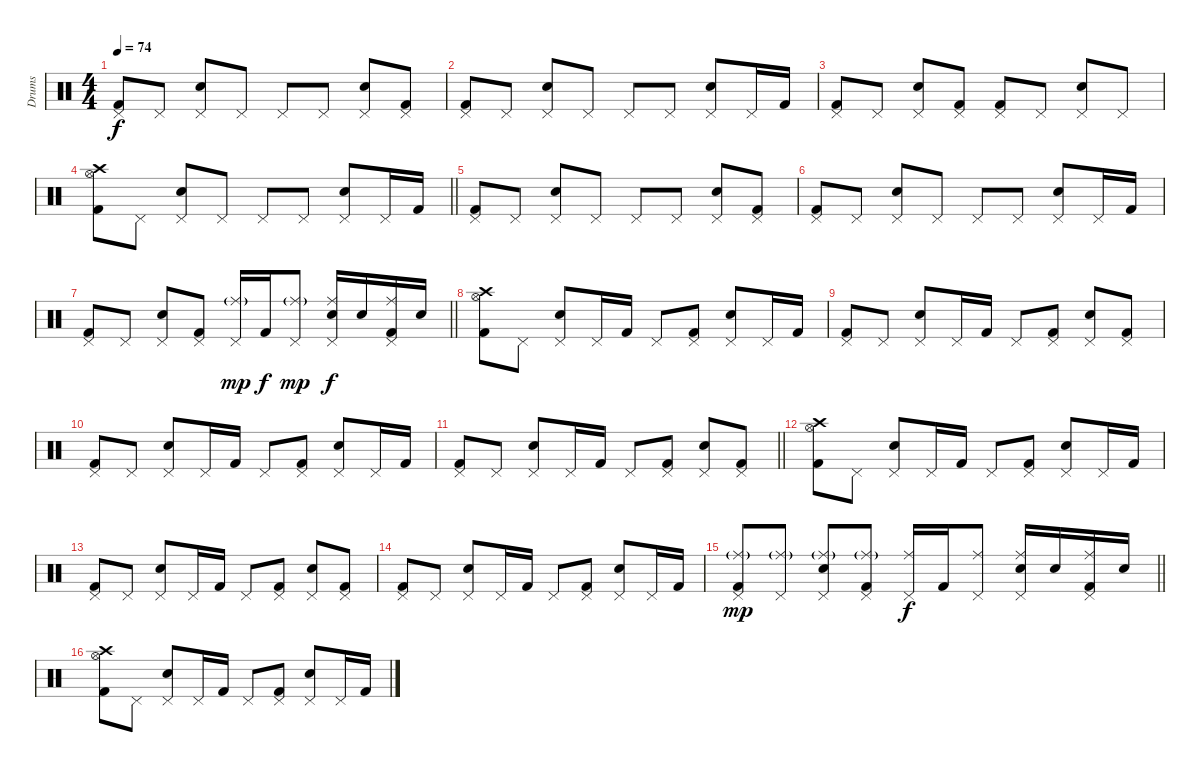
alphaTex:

\track ("Drums" "Drums") {instrument percussion}
\staff {score}
\articulation defaults
\ts (4 4)
\tempo 74
\clef neutral
\ks c
("Pedal Hi-Hat (hit)" "Kick (hit) 2").8{dy f} "Pedal Hi-Hat (hit)".8 ("Pedal Hi-Hat (hit)" "Electric Snare (hit)").8 "Pedal Hi-Hat (hit)".8 "Pedal Hi-Hat (hit)".8 "Pedal Hi-Hat (hit)".8 ("Pedal Hi-Hat (hit)" "Electric Snare (hit)").8 ("Pedal Hi-Hat (hit)" "Kick (hit) 2").8 |
("Pedal Hi-Hat (hit)" "Kick (hit) 2").8 "Pedal Hi-Hat (hit)".8 ("Pedal Hi-Hat (hit)" "Electric Snare (hit)").8 "Pedal Hi-Hat (hit)".8 "Pedal Hi-Hat (hit)".8 "Pedal Hi-Hat (hit)".8 ("Pedal Hi-Hat (hit)" "Electric Snare (hit)").8 "Pedal Hi-Hat (hit)".16 "Kick (hit) 2".16 |
("Pedal Hi-Hat (hit)" "Kick (hit) 2").8 "Pedal Hi-Hat (hit)".8 ("Pedal Hi-Hat (hit)" "Electric Snare (hit)").8 ("Pedal Hi-Hat (hit)" "Kick (hit) 2").8 ("Pedal Hi-Hat (hit)" "Kick (hit) 2").8 "Pedal Hi-Hat (hit)".8 ("Pedal Hi-Hat (hit)" "Electric Snare (hit)").8 "Pedal Hi-Hat (hit)".8 |
\barLineRight lightlight
("Crash high (hit)" "Hi-Hat (open)" "Kick (hit) 2").8 "Pedal Hi-Hat (hit)".8 ("Pedal Hi-Hat (hit)" "Electric Snare (hit)").8 "Pedal Hi-Hat (hit)".8 "Pedal Hi-Hat (hit)".8 "Pedal Hi-Hat (hit)".8 ("Pedal Hi-Hat (hit)" "Electric Snare (hit)").8 "Pedal Hi-Hat (hit)".16 "Kick (hit) 2".16 |
("Pedal Hi-Hat (hit)" "Kick (hit) 2").8 "Pedal Hi-Hat (hit)".8 ("Pedal Hi-Hat (hit)" "Electric Snare (hit)").8 "Pedal Hi-Hat (hit)".8 "Pedal Hi-Hat (hit)".8 "Pedal Hi-Hat (hit)".8 ("Pedal Hi-Hat (hit)" "Electric Snare (hit)").8 ("Pedal Hi-Hat (hit)" "Kick (hit) 2").8 |
("Pedal Hi-Hat (hit)" "Kick (hit) 2").8 "Pedal Hi-Hat (hit)".8 ("Pedal Hi-Hat (hit)" "Electric Snare (hit)").8 "Pedal Hi-Hat (hit)".8 "Pedal Hi-Hat (hit)".8 "Pedal Hi-Hat (hit)".8 ("Pedal Hi-Hat (hit)" "Electric Snare (hit)").8 "Pedal Hi-Hat (hit)".16 "Kick (hit) 2".16 |
\barLineRight lightlight
("Pedal Hi-Hat (hit)" "Kick (hit) 2").8 "Pedal Hi-Hat (hit)".8 ("Pedal Hi-Hat (hit)" "Electric Snare (hit)").8 ("Pedal Hi-Hat (hit)" "Kick (hit) 2").8 ("Pedal Hi-Hat (hit)" "Ride (middle)"{g}).16{dy mp} "Kick (hit) 2".16{dy f} ("Pedal Hi-Hat (hit)" "Ride (middle)"{g}).8{dy mp} ("Pedal Hi-Hat (hit)" "Ride (middle)" "Electric Snare (hit)").16{dy f} "Electric Snare (hit)".16 ("Pedal Hi-Hat (hit)" "Ride (middle)" "Kick (hit) 2").16 "Electric Snare (hit)".16 |
("Crash high (hit)" "Hi-Hat (open)" "Kick (hit) 2").8 "Pedal Hi-Hat (hit)".8 ("Pedal Hi-Hat (hit)" "Electric Snare (hit)").8 "Pedal Hi-Hat (hit)".16 "Kick (hit) 2".16 "Pedal Hi-Hat (hit)".8 ("Pedal Hi-Hat (hit)" "Kick (hit) 2").8 ("Pedal Hi-Hat (hit)" "Electric Snare (hit)").8 "Pedal Hi-Hat (hit)".16 "Kick (hit) 2".16 |
("Pedal Hi-Hat (hit)" "Kick (hit) 2").8 "Pedal Hi-Hat (hit)".8 ("Pedal Hi-Hat (hit)" "Electric Snare (hit)").8 "Pedal Hi-Hat (hit)".16 "Kick (hit) 2".16 "Pedal Hi-Hat (hit)".8 ("Pedal Hi-Hat (hit)" "Kick (hit) 2").8 ("Pedal Hi-Hat (hit)" "Electric Snare (hit)").8 ("Pedal Hi-Hat (hit)" "Kick (hit) 2").8 |
("Pedal Hi-Hat (hit)" "Kick (hit) 2").8 "Pedal Hi-Hat (hit)".8 ("Pedal Hi-Hat (hit)" "Electric Snare (hit)").8 "Pedal Hi-Hat (hit)".16 "Kick (hit) 2".16 "Pedal Hi-Hat (hit)".8 ("Pedal Hi-Hat (hit)" "Kick (hit) 2").8 ("Pedal Hi-Hat (hit)" "Electric Snare (hit)").8 "Pedal Hi-Hat (hit)".16 "Kick (hit) 2".16 |
\barLineRight lightlight
("Pedal Hi-Hat (hit)" "Kick (hit) 2").8 "Pedal Hi-Hat (hit)".8 ("Pedal Hi-Hat (hit)" "Electric Snare (hit)").8 "Pedal Hi-Hat (hit)".16 "Kick (hit) 2".16 "Pedal Hi-Hat (hit)".8 ("Pedal Hi-Hat (hit)" "Kick (hit) 2").8 ("Pedal Hi-Hat (hit)" "Electric Snare (hit)").8 ("Pedal Hi-Hat (hit)" "Kick (hit) 2").8 |
("Crash high (hit)" "Hi-Hat (open)" "Kick (hit) 2").8 "Pedal Hi-Hat (hit)".8 ("Pedal Hi-Hat (hit)" "Electric Snare (hit)").8 "Pedal Hi-Hat (hit)".16 "Kick (hit) 2".16 "Pedal Hi-Hat (hit)".8 ("Pedal Hi-Hat (hit)" "Kick (hit) 2").8 ("Pedal Hi-Hat (hit)" "Electric Snare (hit)").8 "Pedal Hi-Hat (hit)".16 "Kick (hit) 2".16 |
("Pedal Hi-Hat (hit)" "Kick (hit) 2").8 "Pedal Hi-Hat (hit)".8 ("Pedal Hi-Hat (hit)" "Electric Snare (hit)").8 "Pedal Hi-Hat (hit)".16 "Kick (hit) 2".16 "Pedal Hi-Hat (hit)".8 ("Pedal Hi-Hat (hit)" "Kick (hit) 2").8 ("Pedal Hi-Hat (hit)" "Electric Snare (hit)").8 ("Pedal Hi-Hat (hit)" "Kick (hit) 2").8 |
("Pedal Hi-Hat (hit)" "Kick (hit) 2").8 "Pedal Hi-Hat (hit)".8 ("Pedal Hi-Hat (hit)" "Electric Snare (hit)").8 "Pedal Hi-Hat (hit)".16 "Kick (hit) 2".16 "Pedal Hi-Hat (hit)".8 ("Pedal Hi-Hat (hit)" "Kick (hit) 2").8 ("Pedal Hi-Hat (hit)" "Electric Snare (hit)").8 "Pedal Hi-Hat (hit)".16 "Kick (hit) 2".16 |
\barLineRight lightlight
("Pedal Hi-Hat (hit)" "Ride (middle)"{g} "Kick (hit) 2").8{dy mp} ("Pedal Hi-Hat (hit)" "Ride (middle)"{g}).8 ("Pedal Hi-Hat (hit)" "Ride (middle)"{g} "Electric Snare (hit)").8 ("Pedal Hi-Hat (hit)" "Ride (middle)"{g} "Kick (hit) 2").8 ("Pedal Hi-Hat (hit)" "Ride (middle)").16{dy f} "Kick (hit) 2".16 ("Pedal Hi-Hat (hit)" "Ride (middle)").8 ("Pedal Hi-Hat (hit)" "Ride (middle)" "Electric Snare (hit)").16 "Electric Snare (hit)".16 ("Pedal Hi-Hat (hit)" "Ride (middle)" "Kick (hit) 2").16 "Electric Snare (hit)".16 |
("Crash high (hit)" "Hi-Hat (open)" "Kick (hit) 2").8 "Pedal Hi-Hat (hit)".8 ("Pedal Hi-Hat (hit)" "Electric Snare (hit)").8 "Pedal Hi-Hat (hit)".16 "Kick (hit) 2".16 "Pedal Hi-Hat (hit)".8 ("Pedal Hi-Hat (hit)" "Kick (hit) 2").8 ("Pedal Hi-Hat (hit)" "Electric Snare (hit)").8 "Pedal Hi-Hat (hit)".16 "Kick (hit) 2".16
